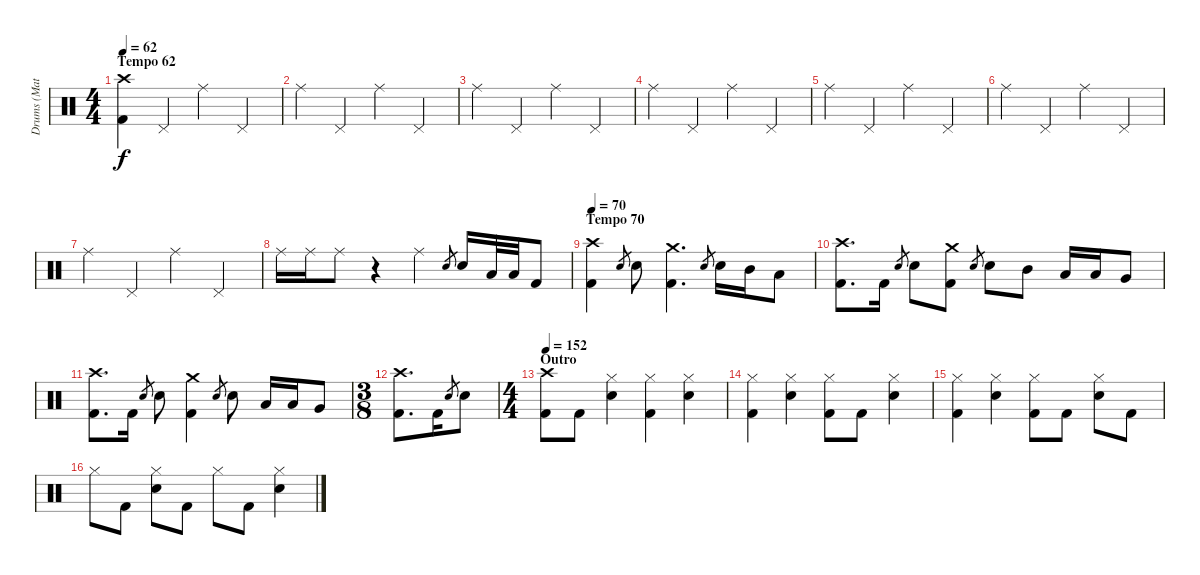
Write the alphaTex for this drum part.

\track ("Drums (Matt)" "Drums (Mat") {instrument percussion}
\staff {score}
\articulation defaults
\ts (4 4)
\section ("" "Tempo 62")
\tempo 62
\clef neutral
\ks c
("Crash high (hit)" "Kick (hit) 2").4{dy f} "Pedal Hi-Hat (hit)".4 "Ride (middle)".4 "Pedal Hi-Hat (hit)".4 |
"Ride (middle)".4 "Pedal Hi-Hat (hit)".4 "Ride (middle)".4 "Pedal Hi-Hat (hit)".4 |
"Ride (middle)".4 "Pedal Hi-Hat (hit)".4 "Ride (middle)".4 "Pedal Hi-Hat (hit)".4 |
"Ride (middle)".4 "Pedal Hi-Hat (hit)".4 "Ride (middle)".4 "Pedal Hi-Hat (hit)".4 |
"Ride (middle)".4 "Pedal Hi-Hat (hit)".4 "Ride (middle)".4 "Pedal Hi-Hat (hit)".4 |
"Ride (middle)".4 "Pedal Hi-Hat (hit)".4 "Ride (middle)".4 "Pedal Hi-Hat (hit)".4 |
"Ride (middle)".4 "Pedal Hi-Hat (hit)".4 "Ride (middle)".4 "Pedal Hi-Hat (hit)".4 |
"Ride (middle)".16 "Ride (middle)".16 "Ride (middle)".8 r.4 "Ride (middle)".4 "Snare (hit) 2".8{gr} "Snare (hit) 2".16 "Low Tom (hit)".32 "Low Tom (hit)".32 "Kick (hit) 2".8 |
\section ("" "Tempo 70")
\tempo 70
("Crash high (hit)" "Kick (hit) 2").4 "Snare (hit) 2".8{gr} "Snare (hit) 2".8 ("Crash medium (hit)" "Kick (hit) 2").4{d} "Snare (hit) 2".8{gr} "Snare (hit) 2".16 "Mid Tom (hit)".16 "Low Tom (hit)".8 |
("Crash high (hit)" "Kick (hit) 2").8{d} "Kick (hit) 2".16 "Snare (hit) 2".8{gr} "Snare (hit) 2".8 ("Crash medium (hit)" "Kick (hit) 2").8 "Snare (hit) 2".8{gr} "Snare (hit) 2".8 "Mid Tom (hit)".8 "Low Tom (hit)".16 "Low Tom (hit)".16 "Very Low Tom (hit)".8 |
("Crash high (hit)" "Kick (hit) 2").8{d} "Kick (hit) 2".16 "Snare (hit) 2".8{gr} "Snare (hit) 2".8 ("Crash medium (hit)" "Kick (hit) 2").4 "Snare (hit) 2".8{gr} "Snare (hit) 2".8 "Low Tom (hit)".16 "Low Tom (hit)".16 "Very Low Tom (hit)".8 |
\ts (3 8)
("Crash high (hit)" "Kick (hit) 2").8{d} "Kick (hit) 2".16 "Snare (hit) 2".8{gr} "Snare (hit) 2".8 |
\ts (4 4)
\section ("" "Outro")
\tempo 152
("Crash high (hit)" "Kick (hit) 2").8 "Kick (hit) 2".8 ("Hi-Hat (closed)" "Snare (hit) 2").4 ("Hi-Hat (closed)" "Kick (hit) 2").4 ("Hi-Hat (closed)" "Snare (hit) 2").4 |
("Hi-Hat (closed)" "Kick (hit) 2").4 ("Hi-Hat (closed)" "Snare (hit) 2").4 ("Hi-Hat (closed)" "Kick (hit) 2").8 "Kick (hit) 2".8 ("Hi-Hat (closed)" "Snare (hit) 2").4 |
("Hi-Hat (closed)" "Kick (hit) 2").4 ("Hi-Hat (closed)" "Snare (hit) 2").4 ("Hi-Hat (closed)" "Kick (hit) 2").8 "Kick (hit) 2".8 ("Hi-Hat (closed)" "Snare (hit) 2").8 "Kick (hit) 2".8 |
"Hi-Hat (closed)".8 "Kick (hit) 2".8 ("Hi-Hat (closed)" "Snare (hit) 2").8 "Kick (hit) 2".8 "Hi-Hat (closed)".8 "Kick (hit) 2".8 ("Hi-Hat (closed)" "Snare (hit) 2").4
